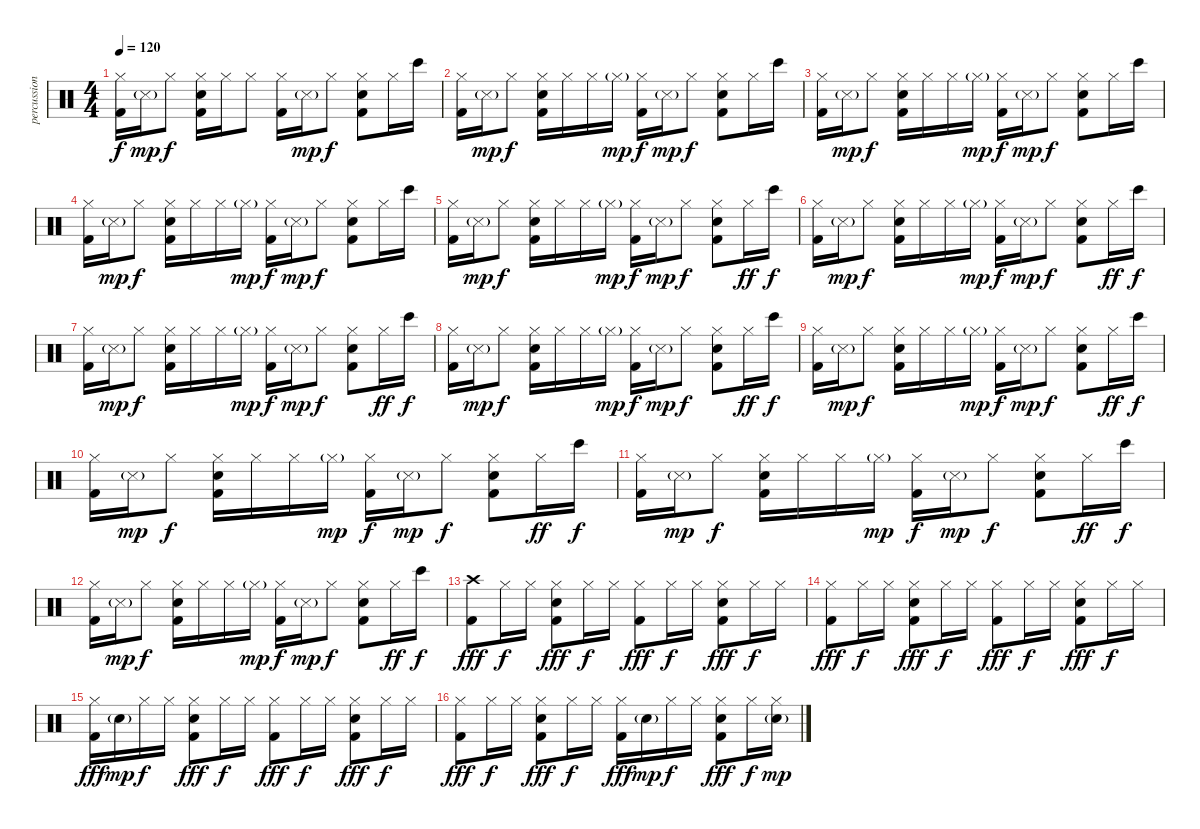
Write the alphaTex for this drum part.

\track ("percussion" "percussion") {instrument percussion}
\staff {score}
\articulation defaults
\ts (4 4)
\tempo 120
\clef neutral
\ks c
("Hi-Hat (closed)" "Kick (hit) 2").16{dy f} "Snare (side stick) 3"{g}.16{dy mp} "Hi-Hat (closed)".8{dy f} ("Snare (hit) 2" "Hi-Hat (closed)" "Kick (hit) 2").16 "Hi-Hat (closed)".16 "Hi-Hat (closed)".8 ("Hi-Hat (closed)" "Kick (hit) 2").16 "Snare (side stick) 3"{g}.16{dy mp} "Hi-Hat (closed)".8{dy f} ("Snare (hit) 2" "Hi-Hat (closed)" "Kick (hit) 2").8 "Hi-Hat (closed)".16 "Bongo High (hit)".16 |
("Hi-Hat (closed)" "Kick (hit) 2").16 "Snare (side stick) 3"{g}.16{dy mp} "Hi-Hat (closed)".8{dy f} ("Snare (hit) 2" "Hi-Hat (closed)" "Kick (hit) 2").16 "Hi-Hat (closed)".16 "Hi-Hat (closed)".16 "Hi-Hat (closed)"{g}.16{dy mp} ("Hi-Hat (closed)" "Kick (hit) 2").16{dy f} "Snare (side stick) 3"{g}.16{dy mp} "Hi-Hat (closed)".8{dy f} ("Snare (hit) 2" "Hi-Hat (closed)" "Kick (hit) 2").8 "Hi-Hat (closed)".16 "Bongo High (hit)".16 |
("Hi-Hat (closed)" "Kick (hit) 2").16 "Snare (side stick) 3"{g}.16{dy mp} "Hi-Hat (closed)".8{dy f} ("Snare (hit) 2" "Hi-Hat (closed)" "Kick (hit) 2").16 "Hi-Hat (closed)".16 "Hi-Hat (closed)".16 "Hi-Hat (closed)"{g}.16{dy mp} ("Hi-Hat (closed)" "Kick (hit) 2").16{dy f} "Snare (side stick) 3"{g}.16{dy mp} "Hi-Hat (closed)".8{dy f} ("Snare (hit) 2" "Hi-Hat (closed)" "Kick (hit) 2").8 "Hi-Hat (closed)".16 "Bongo High (hit)".16 |
("Hi-Hat (closed)" "Kick (hit) 2").16 "Snare (side stick) 3"{g}.16{dy mp} "Hi-Hat (closed)".8{dy f} ("Snare (hit) 2" "Hi-Hat (closed)" "Kick (hit) 2").16 "Hi-Hat (closed)".16 "Hi-Hat (closed)".16 "Hi-Hat (closed)"{g}.16{dy mp} ("Hi-Hat (closed)" "Kick (hit) 2").16{dy f} "Snare (side stick) 3"{g}.16{dy mp} "Hi-Hat (closed)".8{dy f} ("Snare (hit) 2" "Hi-Hat (closed)" "Kick (hit) 2").8 "Hi-Hat (closed)".16 "Bongo High (hit)".16 |
("Hi-Hat (closed)" "Kick (hit) 2").16 "Snare (side stick) 3"{g}.16{dy mp} "Hi-Hat (closed)".8{dy f} ("Snare (hit) 2" "Hi-Hat (closed)" "Kick (hit) 2").16 "Hi-Hat (closed)".16 "Hi-Hat (closed)".16 "Hi-Hat (closed)"{g}.16{dy mp} ("Hi-Hat (closed)" "Kick (hit) 2").16{dy f} "Snare (side stick) 3"{g}.16{dy mp} "Hi-Hat (closed)".8{dy f} ("Snare (hit) 2" "Hi-Hat (closed)" "Kick (hit) 2").8 "Hi-Hat (closed)".16{dy ff} "Bongo High (hit)".16{dy f} |
("Hi-Hat (closed)" "Kick (hit) 2").16 "Snare (side stick) 3"{g}.16{dy mp} "Hi-Hat (closed)".8{dy f} ("Snare (hit) 2" "Hi-Hat (closed)" "Kick (hit) 2").16 "Hi-Hat (closed)".16 "Hi-Hat (closed)".16 "Hi-Hat (closed)"{g}.16{dy mp} ("Hi-Hat (closed)" "Kick (hit) 2").16{dy f} "Snare (side stick) 3"{g}.16{dy mp} "Hi-Hat (closed)".8{dy f} ("Snare (hit) 2" "Hi-Hat (closed)" "Kick (hit) 2").8 "Hi-Hat (closed)".16{dy ff} "Bongo High (hit)".16{dy f} |
("Hi-Hat (closed)" "Kick (hit) 2").16 "Snare (side stick) 3"{g}.16{dy mp} "Hi-Hat (closed)".8{dy f} ("Snare (hit) 2" "Hi-Hat (closed)" "Kick (hit) 2").16 "Hi-Hat (closed)".16 "Hi-Hat (closed)".16 "Hi-Hat (closed)"{g}.16{dy mp} ("Hi-Hat (closed)" "Kick (hit) 2").16{dy f} "Snare (side stick) 3"{g}.16{dy mp} "Hi-Hat (closed)".8{dy f} ("Snare (hit) 2" "Hi-Hat (closed)" "Kick (hit) 2").8 "Hi-Hat (closed)".16{dy ff} "Bongo High (hit)".16{dy f} |
("Hi-Hat (closed)" "Kick (hit) 2").16 "Snare (side stick) 3"{g}.16{dy mp} "Hi-Hat (closed)".8{dy f} ("Snare (hit) 2" "Hi-Hat (closed)" "Kick (hit) 2").16 "Hi-Hat (closed)".16 "Hi-Hat (closed)".16 "Hi-Hat (closed)"{g}.16{dy mp} ("Hi-Hat (closed)" "Kick (hit) 2").16{dy f} "Snare (side stick) 3"{g}.16{dy mp} "Hi-Hat (closed)".8{dy f} ("Snare (hit) 2" "Hi-Hat (closed)" "Kick (hit) 2").8 "Hi-Hat (closed)".16{dy ff} "Bongo High (hit)".16{dy f} |
("Hi-Hat (closed)" "Kick (hit) 2").16 "Snare (side stick) 3"{g}.16{dy mp} "Hi-Hat (closed)".8{dy f} ("Snare (hit) 2" "Hi-Hat (closed)" "Kick (hit) 2").16 "Hi-Hat (closed)".16 "Hi-Hat (closed)".16 "Hi-Hat (closed)"{g}.16{dy mp} ("Hi-Hat (closed)" "Kick (hit) 2").16{dy f} "Snare (side stick) 3"{g}.16{dy mp} "Hi-Hat (closed)".8{dy f} ("Snare (hit) 2" "Hi-Hat (closed)" "Kick (hit) 2").8 "Hi-Hat (closed)".16{dy ff} "Bongo High (hit)".16{dy f} |
("Hi-Hat (closed)" "Kick (hit) 2").16 "Snare (side stick) 3"{g}.16{dy mp} "Hi-Hat (closed)".8{dy f} ("Snare (hit) 2" "Hi-Hat (closed)" "Kick (hit) 2").16 "Hi-Hat (closed)".16 "Hi-Hat (closed)".16 "Hi-Hat (closed)"{g}.16{dy mp} ("Hi-Hat (closed)" "Kick (hit) 2").16{dy f} "Snare (side stick) 3"{g}.16{dy mp} "Hi-Hat (closed)".8{dy f} ("Snare (hit) 2" "Hi-Hat (closed)" "Kick (hit) 2").8 "Hi-Hat (closed)".16{dy ff} "Bongo High (hit)".16{dy f} |
("Hi-Hat (closed)" "Kick (hit) 2").16 "Snare (side stick) 3"{g}.16{dy mp} "Hi-Hat (closed)".8{dy f} ("Snare (hit) 2" "Hi-Hat (closed)" "Kick (hit) 2").16 "Hi-Hat (closed)".16 "Hi-Hat (closed)".16 "Hi-Hat (closed)"{g}.16{dy mp} ("Hi-Hat (closed)" "Kick (hit) 2").16{dy f} "Snare (side stick) 3"{g}.16{dy mp} "Hi-Hat (closed)".8{dy f} ("Snare (hit) 2" "Hi-Hat (closed)" "Kick (hit) 2").8 "Hi-Hat (closed)".16{dy ff} "Bongo High (hit)".16{dy f} |
("Hi-Hat (closed)" "Kick (hit) 2").16 "Snare (side stick) 3"{g}.16{dy mp} "Hi-Hat (closed)".8{dy f} ("Snare (hit) 2" "Hi-Hat (closed)" "Kick (hit) 2").16 "Hi-Hat (closed)".16 "Hi-Hat (closed)".16 "Hi-Hat (closed)"{g}.16{dy mp} ("Hi-Hat (closed)" "Kick (hit) 2").16{dy f} "Snare (side stick) 3"{g}.16{dy mp} "Hi-Hat (closed)".8{dy f} ("Snare (hit) 2" "Hi-Hat (closed)" "Kick (hit) 2").8 "Hi-Hat (closed)".16{dy ff} "Bongo High (hit)".16{dy f} |
("Crash high (hit)" "Kick (hit) 2").8{dy fff} "Hi-Hat (closed)".16{dy f} "Hi-Hat (closed)".16 ("Snare (hit) 2" "Hi-Hat (closed)" "Kick (hit) 2").8{dy fff} "Hi-Hat (closed)".16{dy f} "Hi-Hat (closed)".16 ("Hi-Hat (closed)" "Kick (hit) 2").8{dy fff} "Hi-Hat (closed)".16{dy f} "Hi-Hat (closed)".16 ("Snare (hit) 2" "Hi-Hat (closed)" "Kick (hit) 2").8{dy fff} "Hi-Hat (closed)".16{dy f} "Hi-Hat (closed)".16 |
("Hi-Hat (closed)" "Kick (hit) 2").8{dy fff} "Hi-Hat (closed)".16{dy f} "Hi-Hat (closed)".16 ("Snare (hit) 2" "Hi-Hat (closed)" "Kick (hit) 2").8{dy fff} "Hi-Hat (closed)".16{dy f} "Hi-Hat (closed)".16 ("Hi-Hat (closed)" "Kick (hit) 2").8{dy fff} "Hi-Hat (closed)".16{dy f} "Hi-Hat (closed)".16 ("Snare (hit) 2" "Hi-Hat (closed)" "Kick (hit) 2").8{dy fff} "Hi-Hat (closed)".16{dy f} "Hi-Hat (closed)".16 |
("Hi-Hat (closed)" "Kick (hit) 2").16{dy fff} "Electric Snare (hit)"{g}.16{dy mp} "Hi-Hat (closed)".16{dy f} "Hi-Hat (closed)".16 ("Snare (hit) 2" "Hi-Hat (closed)" "Kick (hit) 2").8{dy fff} "Hi-Hat (closed)".16{dy f} "Hi-Hat (closed)".16 ("Hi-Hat (closed)" "Kick (hit) 2").8{dy fff} "Hi-Hat (closed)".16{dy f} "Hi-Hat (closed)".16 ("Snare (hit) 2" "Hi-Hat (closed)" "Kick (hit) 2").8{dy fff} "Hi-Hat (closed)".16{dy f} "Hi-Hat (closed)".16 |
("Hi-Hat (closed)" "Kick (hit) 2").8{dy fff} "Hi-Hat (closed)".16{dy f} "Hi-Hat (closed)".16 ("Snare (hit) 2" "Hi-Hat (closed)" "Kick (hit) 2").8{dy fff} "Hi-Hat (closed)".16{dy f} "Hi-Hat (closed)".16 ("Hi-Hat (closed)" "Kick (hit) 2").16{dy fff} "Electric Snare (hit)"{g}.16{dy mp} "Hi-Hat (closed)".16{dy f} "Hi-Hat (closed)".16 ("Snare (hit) 2" "Hi-Hat (closed)" "Kick (hit) 2").8{dy fff} "Hi-Hat (closed)".16{dy f} ("Electric Snare (hit)"{g} "Hi-Hat (closed)").16{dy mp}
